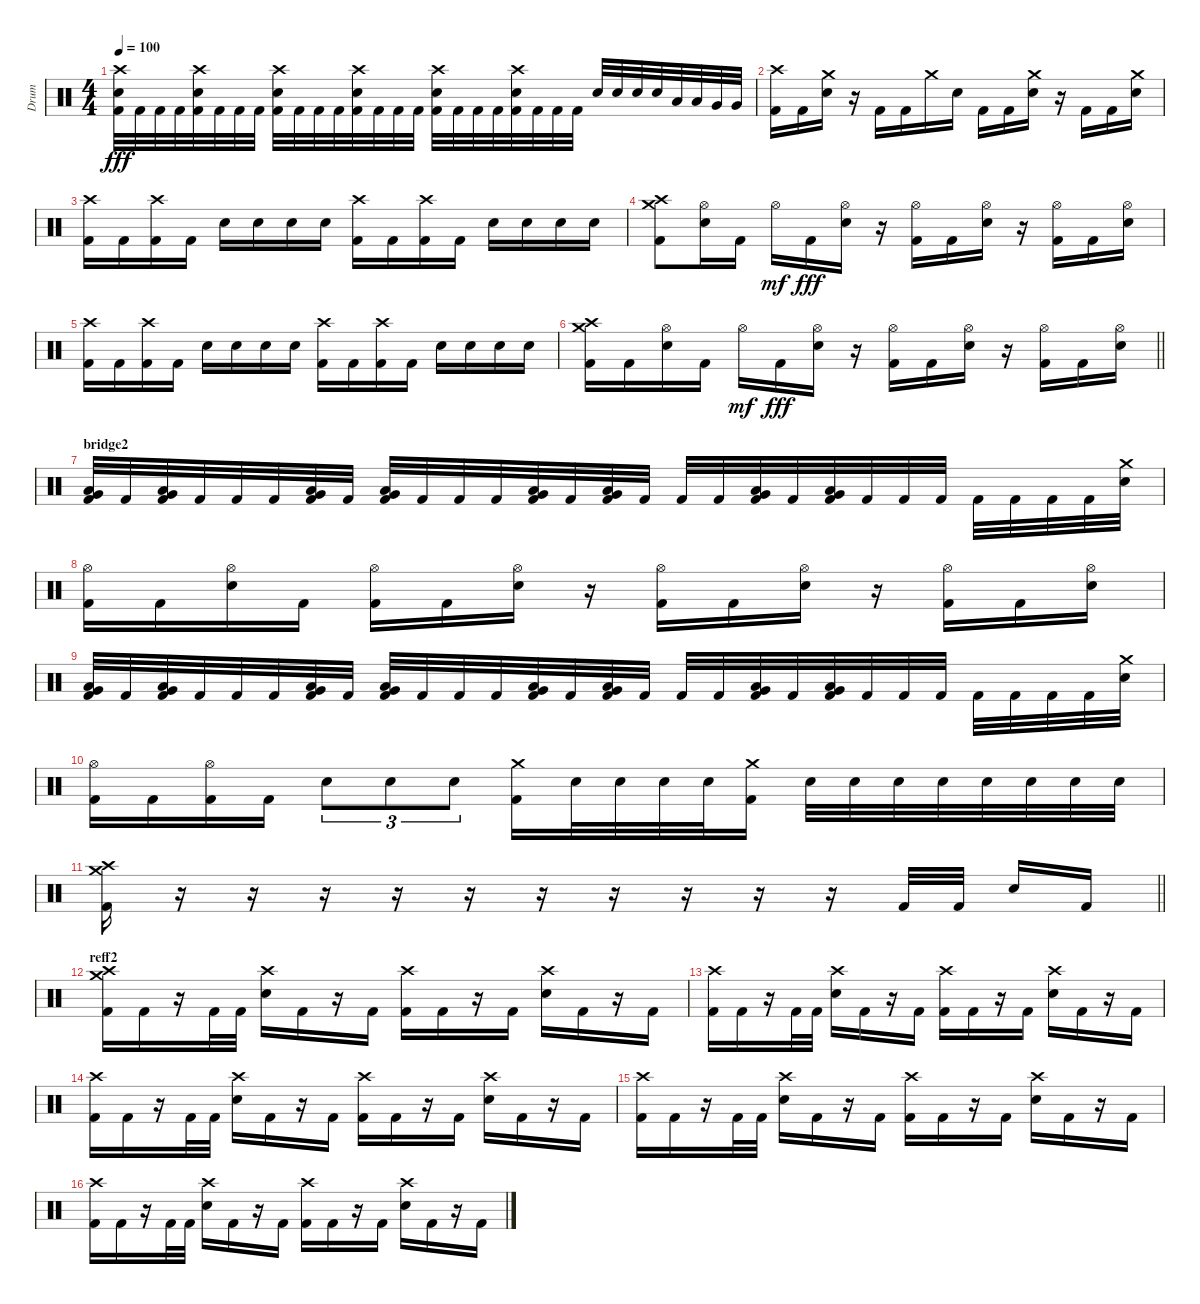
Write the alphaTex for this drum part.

\track ("Drum" "Drum") {instrument percussion}
\staff {score}
\articulation defaults
\ts (4 4)
\tempo 100
\clef neutral
\ks c
("Crash high (hit)" "Electric Snare (hit)" "Kick (hit) 2").32{dy fff} "Kick (hit) 2".32 "Kick (hit) 2".32 "Kick (hit) 2".32 ("Crash high (hit)" "Electric Snare (hit)" "Kick (hit) 2").32 "Kick (hit) 2".32 "Kick (hit) 2".32 "Kick (hit) 2".32 ("Crash high (hit)" "Electric Snare (hit)" "Kick (hit) 2").32 "Kick (hit) 2".32 "Kick (hit) 2".32 "Kick (hit) 2".32 ("Crash high (hit)" "Electric Snare (hit)" "Kick (hit) 2").32 "Kick (hit) 2".32 "Kick (hit) 2".32 "Kick (hit) 2".32 ("Crash high (hit)" "Electric Snare (hit)" "Kick (hit) 2").32 "Kick (hit) 2".32 "Kick (hit) 2".32 "Kick (hit) 2".32 ("Crash high (hit)" "Electric Snare (hit)" "Kick (hit) 2").32 "Kick (hit) 2".32 "Kick (hit) 2".32 "Kick (hit) 2".32 "Electric Snare (hit)".32 "Electric Snare (hit)".32 "Electric Snare (hit)".32 "Electric Snare (hit)".32 "Low Tom (hit)".32 "Low Tom (hit)".32 "Very Low Tom (hit)".32 "Very Low Tom (hit)".32 |
("Crash high (hit)" "Kick (hit) 2").16 "Kick (hit) 2".16 ("Crash medium (hit)" "Electric Snare (hit)").16 r.16 "Kick (hit) 2".16 "Kick (hit) 2".16 "Crash medium (hit)".16 "Electric Snare (hit)".16 "Kick (hit) 2".16 "Kick (hit) 2".16 ("Crash medium (hit)" "Electric Snare (hit)").16 r.16 "Kick (hit) 2".16 "Kick (hit) 2".16 ("Crash medium (hit)" "Electric Snare (hit)").16 |
("Crash high (hit)" "Kick (hit) 2").16 "Kick (hit) 2".16 ("Crash high (hit)" "Kick (hit) 2").16 "Kick (hit) 2".16 "Electric Snare (hit)".16 "Electric Snare (hit)".16 "Electric Snare (hit)".16 "Electric Snare (hit)".16 ("Crash high (hit)" "Kick (hit) 2").16 "Kick (hit) 2".16 ("Crash high (hit)" "Kick (hit) 2").16 "Kick (hit) 2".16 "Electric Snare (hit)".16 "Electric Snare (hit)".16 "Electric Snare (hit)".16 "Electric Snare (hit)".16 |
("Crash medium (hit)" "Crash high (hit)" "Kick (hit) 2").8 ("Hi-Hat (open)" "Electric Snare (hit)").16 "Kick (hit) 2".16 "Hi-Hat (open)".16{dy mf} "Kick (hit) 2".16{dy fff} ("Hi-Hat (open)" "Electric Snare (hit)").16 r.16 ("Hi-Hat (open)" "Kick (hit) 2").16 "Kick (hit) 2".16 ("Hi-Hat (open)" "Electric Snare (hit)").16 r.16 ("Hi-Hat (open)" "Kick (hit) 2").16 "Kick (hit) 2".16 ("Hi-Hat (open)" "Electric Snare (hit)").16 |
("Crash high (hit)" "Kick (hit) 2").16 "Kick (hit) 2".16 ("Crash high (hit)" "Kick (hit) 2").16 "Kick (hit) 2".16 "Electric Snare (hit)".16 "Electric Snare (hit)".16 "Electric Snare (hit)".16 "Electric Snare (hit)".16 ("Crash high (hit)" "Kick (hit) 2").16 "Kick (hit) 2".16 ("Crash high (hit)" "Kick (hit) 2").16 "Kick (hit) 2".16 "Electric Snare (hit)".16 "Electric Snare (hit)".16 "Electric Snare (hit)".16 "Electric Snare (hit)".16 |
\barLineRight lightlight
("Crash medium (hit)" "Crash high (hit)" "Kick (hit) 2").16 "Kick (hit) 2".16 ("Hi-Hat (open)" "Electric Snare (hit)").16 "Kick (hit) 2".16 "Hi-Hat (open)".16{dy mf} "Kick (hit) 2".16{dy fff} ("Hi-Hat (open)" "Electric Snare (hit)").16 r.16 ("Hi-Hat (open)" "Kick (hit) 2").16 "Kick (hit) 2".16 ("Hi-Hat (open)" "Electric Snare (hit)").16 r.16 ("Hi-Hat (open)" "Kick (hit) 2").16 "Kick (hit) 2".16 ("Hi-Hat (open)" "Electric Snare (hit)").16 |
\section ("" "bridge2")
("Very Low Tom (hit)" "Low Floor Tom (hit)" "Kick (hit) 2").32 "Kick (hit) 2".32 ("Very Low Tom (hit)" "Low Floor Tom (hit)" "Kick (hit) 2").32 "Kick (hit) 2".32 "Kick (hit) 2".32 "Kick (hit) 2".32 ("Very Low Tom (hit)" "Low Floor Tom (hit)" "Kick (hit) 2").32 "Kick (hit) 2".32 ("Very Low Tom (hit)" "Low Floor Tom (hit)" "Kick (hit) 2").32 "Kick (hit) 2".32 "Kick (hit) 2".32 "Kick (hit) 2".32 ("Very Low Tom (hit)" "Low Floor Tom (hit)" "Kick (hit) 2").32 "Kick (hit) 2".32 ("Very Low Tom (hit)" "Low Floor Tom (hit)" "Kick (hit) 2").32 "Kick (hit) 2".32 "Kick (hit) 2".32 "Kick (hit) 2".32 ("Very Low Tom (hit)" "Low Floor Tom (hit)" "Kick (hit) 2").32 "Kick (hit) 2".32 ("Very Low Tom (hit)" "Low Floor Tom (hit)" "Kick (hit) 2").32 "Kick (hit) 2".32 "Kick (hit) 2".32 "Kick (hit) 2".32 "Kick (hit) 2".32 "Kick (hit) 2".32 "Kick (hit) 2".32 "Kick (hit) 2".32 ("Crash medium (hit)" "Electric Snare (hit)").32 |
("Hi-Hat (open)" "Kick (hit) 2").16 "Kick (hit) 2".16 ("Hi-Hat (open)" "Electric Snare (hit)").16 "Kick (hit) 2".16 ("Hi-Hat (open)" "Kick (hit) 2").16 "Kick (hit) 2".16 ("Hi-Hat (open)" "Electric Snare (hit)").16 r.16 ("Hi-Hat (open)" "Kick (hit) 2").16 "Kick (hit) 2".16 ("Hi-Hat (open)" "Electric Snare (hit)").16 r.16 ("Hi-Hat (open)" "Kick (hit) 2").16 "Kick (hit) 2".16 ("Hi-Hat (open)" "Electric Snare (hit)").16 |
("Very Low Tom (hit)" "Low Floor Tom (hit)" "Kick (hit) 2").32 "Kick (hit) 2".32 ("Very Low Tom (hit)" "Low Floor Tom (hit)" "Kick (hit) 2").32 "Kick (hit) 2".32 "Kick (hit) 2".32 "Kick (hit) 2".32 ("Very Low Tom (hit)" "Low Floor Tom (hit)" "Kick (hit) 2").32 "Kick (hit) 2".32 ("Very Low Tom (hit)" "Low Floor Tom (hit)" "Kick (hit) 2").32 "Kick (hit) 2".32 "Kick (hit) 2".32 "Kick (hit) 2".32 ("Very Low Tom (hit)" "Low Floor Tom (hit)" "Kick (hit) 2").32 "Kick (hit) 2".32 ("Very Low Tom (hit)" "Low Floor Tom (hit)" "Kick (hit) 2").32 "Kick (hit) 2".32 "Kick (hit) 2".32 "Kick (hit) 2".32 ("Very Low Tom (hit)" "Low Floor Tom (hit)" "Kick (hit) 2").32 "Kick (hit) 2".32 ("Very Low Tom (hit)" "Low Floor Tom (hit)" "Kick (hit) 2").32 "Kick (hit) 2".32 "Kick (hit) 2".32 "Kick (hit) 2".32 "Kick (hit) 2".32 "Kick (hit) 2".32 "Kick (hit) 2".32 "Kick (hit) 2".32 ("Crash medium (hit)" "Electric Snare (hit)").32 |
("Hi-Hat (open)" "Kick (hit) 2").16 "Kick (hit) 2".16 ("Hi-Hat (open)" "Kick (hit) 2").16 "Kick (hit) 2".16 "Electric Snare (hit)".8{tu (3 2)} "Electric Snare (hit)".8{tu (3 2)} "Electric Snare (hit)".8{tu (3 2)} ("Crash medium (hit)" "Kick (hit) 2").16 "Electric Snare (hit)".32 "Electric Snare (hit)".32 "Electric Snare (hit)".32 "Electric Snare (hit)".32 ("Crash medium (hit)" "Kick (hit) 2").16 "Electric Snare (hit)".32 "Electric Snare (hit)".32 "Electric Snare (hit)".32 "Electric Snare (hit)".32 "Electric Snare (hit)".32 "Electric Snare (hit)".32 "Electric Snare (hit)".32 "Electric Snare (hit)".32 |
\barLineRight lightlight
("Crash high (hit)" "Crash medium (hit)" "Kick (hit) 2").16 r.16 r.16 r.16 r.16 r.16 r.16 r.16 r.16 r.16 r.16 "Kick (hit) 2".32 "Kick (hit) 2".32 "Electric Snare (hit)".16 "Kick (hit) 2".16 |
\section ("" "reff2")
("Crash high (hit)" "Crash medium (hit)" "Kick (hit) 2").16 "Kick (hit) 2".16 r.16 "Kick (hit) 2".32 "Kick (hit) 2".32 ("Crash high (hit)" "Electric Snare (hit)").16 "Kick (hit) 2".16 r.16 "Kick (hit) 2".16 ("Crash high (hit)" "Kick (hit) 2").16 "Kick (hit) 2".16 r.16 "Kick (hit) 2".16 ("Crash high (hit)" "Electric Snare (hit)").16 "Kick (hit) 2".16 r.16 "Kick (hit) 2".16 |
("Crash high (hit)" "Kick (hit) 2").16 "Kick (hit) 2".16 r.16 "Kick (hit) 2".32 "Kick (hit) 2".32 ("Crash high (hit)" "Electric Snare (hit)").16 "Kick (hit) 2".16 r.16 "Kick (hit) 2".16 ("Crash high (hit)" "Kick (hit) 2").16 "Kick (hit) 2".16 r.16 "Kick (hit) 2".16 ("Crash high (hit)" "Electric Snare (hit)").16 "Kick (hit) 2".16 r.16 "Kick (hit) 2".16 |
("Crash high (hit)" "Kick (hit) 2").16 "Kick (hit) 2".16 r.16 "Kick (hit) 2".32 "Kick (hit) 2".32 ("Crash high (hit)" "Electric Snare (hit)").16 "Kick (hit) 2".16 r.16 "Kick (hit) 2".16 ("Crash high (hit)" "Kick (hit) 2").16 "Kick (hit) 2".16 r.16 "Kick (hit) 2".16 ("Crash high (hit)" "Electric Snare (hit)").16 "Kick (hit) 2".16 r.16 "Kick (hit) 2".16 |
("Crash high (hit)" "Kick (hit) 2").16 "Kick (hit) 2".16 r.16 "Kick (hit) 2".32 "Kick (hit) 2".32 ("Crash high (hit)" "Electric Snare (hit)").16 "Kick (hit) 2".16 r.16 "Kick (hit) 2".16 ("Crash high (hit)" "Kick (hit) 2").16 "Kick (hit) 2".16 r.16 "Kick (hit) 2".16 ("Crash high (hit)" "Electric Snare (hit)").16 "Kick (hit) 2".16 r.16 "Kick (hit) 2".16 |
("Crash high (hit)" "Kick (hit) 2").16 "Kick (hit) 2".16 r.16 "Kick (hit) 2".32 "Kick (hit) 2".32 ("Crash high (hit)" "Electric Snare (hit)").16 "Kick (hit) 2".16 r.16 "Kick (hit) 2".16 ("Crash high (hit)" "Kick (hit) 2").16 "Kick (hit) 2".16 r.16 "Kick (hit) 2".16 ("Crash high (hit)" "Electric Snare (hit)").16 "Kick (hit) 2".16 r.16 "Kick (hit) 2".16
